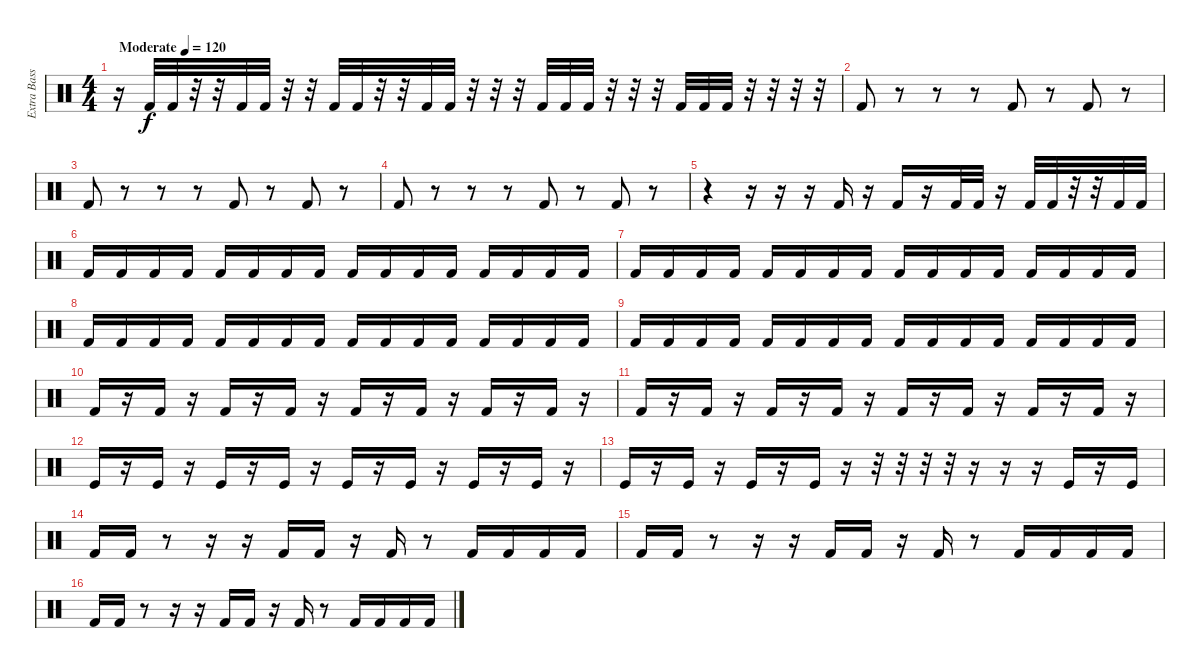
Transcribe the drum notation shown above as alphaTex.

\track ("Extra Bass Drum" "Extra Bass") {instrument percussion}
\staff {score}
\articulation defaults
\ts (4 4)
\tempo (120 "Moderate")
\clef neutral
\ks c
r.16{dy f} "Kick (hit) 2".32 "Kick (hit) 2".32 r.32 r.32 "Kick (hit) 2".32 "Kick (hit) 2".32 r.32 r.32 "Kick (hit) 2".32 "Kick (hit) 2".32 r.32 r.32 "Kick (hit) 2".32 "Kick (hit) 2".32 r.32 r.32 r.32 "Kick (hit) 2".32 "Kick (hit) 2".32 "Kick (hit) 2".32 r.32 r.32 r.32 "Kick (hit) 2".32 "Kick (hit) 2".32 "Kick (hit) 2".32 r.32 r.32 r.32 r.32 |
"Kick (hit) 2".8 r.8 r.8 r.8 "Kick (hit) 2".8 r.8 "Kick (hit) 2".8 r.8 |
"Kick (hit) 2".8 r.8 r.8 r.8 "Kick (hit) 2".8 r.8 "Kick (hit) 2".8 r.8 |
"Kick (hit) 2".8 r.8 r.8 r.8 "Kick (hit) 2".8 r.8 "Kick (hit) 2".8 r.8 |
r.4 r.16 r.16 r.16 "Kick (hit) 2".16 r.16 "Kick (hit) 2".16 r.16 "Kick (hit) 2".32 "Kick (hit) 2".32 r.16 "Kick (hit) 2".32 "Kick (hit) 2".32 r.32 r.32 "Kick (hit) 2".32 "Kick (hit) 2".32 |
"Kick (hit) 2".16 "Kick (hit) 2".16 "Kick (hit) 2".16 "Kick (hit) 2".16 "Kick (hit) 2".16 "Kick (hit) 2".16 "Kick (hit) 2".16 "Kick (hit) 2".16 "Kick (hit) 2".16 "Kick (hit) 2".16 "Kick (hit) 2".16 "Kick (hit) 2".16 "Kick (hit) 2".16 "Kick (hit) 2".16 "Kick (hit) 2".16 "Kick (hit) 2".16 |
"Kick (hit) 2".16 "Kick (hit) 2".16 "Kick (hit) 2".16 "Kick (hit) 2".16 "Kick (hit) 2".16 "Kick (hit) 2".16 "Kick (hit) 2".16 "Kick (hit) 2".16 "Kick (hit) 2".16 "Kick (hit) 2".16 "Kick (hit) 2".16 "Kick (hit) 2".16 "Kick (hit) 2".16 "Kick (hit) 2".16 "Kick (hit) 2".16 "Kick (hit) 2".16 |
"Kick (hit) 2".16 "Kick (hit) 2".16 "Kick (hit) 2".16 "Kick (hit) 2".16 "Kick (hit) 2".16 "Kick (hit) 2".16 "Kick (hit) 2".16 "Kick (hit) 2".16 "Kick (hit) 2".16 "Kick (hit) 2".16 "Kick (hit) 2".16 "Kick (hit) 2".16 "Kick (hit) 2".16 "Kick (hit) 2".16 "Kick (hit) 2".16 "Kick (hit) 2".16 |
"Kick (hit) 2".16 "Kick (hit) 2".16 "Kick (hit) 2".16 "Kick (hit) 2".16 "Kick (hit) 2".16 "Kick (hit) 2".16 "Kick (hit) 2".16 "Kick (hit) 2".16 "Kick (hit) 2".16 "Kick (hit) 2".16 "Kick (hit) 2".16 "Kick (hit) 2".16 "Kick (hit) 2".16 "Kick (hit) 2".16 "Kick (hit) 2".16 "Kick (hit) 2".16 |
"Kick (hit) 2".16 r.16 "Kick (hit) 2".16 r.16 "Kick (hit) 2".16 r.16 "Kick (hit) 2".16 r.16 "Kick (hit) 2".16 r.16 "Kick (hit) 2".16 r.16 "Kick (hit) 2".16 r.16 "Kick (hit) 2".16 r.16 |
"Kick (hit) 2".16 r.16 "Kick (hit) 2".16 r.16 "Kick (hit) 2".16 r.16 "Kick (hit) 2".16 r.16 "Kick (hit) 2".16 r.16 "Kick (hit) 2".16 r.16 "Kick (hit) 2".16 r.16 "Kick (hit) 2".16 r.16 |
"Kick (hit)".16 r.16 "Kick (hit)".16 r.16 "Kick (hit)".16 r.16 "Kick (hit)".16 r.16 "Kick (hit)".16 r.16 "Kick (hit)".16 r.16 "Kick (hit)".16 r.16 "Kick (hit)".16 r.16 |
"Kick (hit)".16 r.16 "Kick (hit)".16 r.16 "Kick (hit)".16 r.16 "Kick (hit)".16 r.16 r.32 r.32 r.32 r.32 r.16 r.16 r.16 "Kick (hit)".16 r.16 "Kick (hit)".16 |
"Kick (hit) 2".16 "Kick (hit) 2".16 r.8 r.16 r.16 "Kick (hit) 2".16 "Kick (hit) 2".16 r.16 "Kick (hit) 2".16 r.8 "Kick (hit) 2".16 "Kick (hit) 2".16 "Kick (hit) 2".16 "Kick (hit) 2".16 |
"Kick (hit) 2".16 "Kick (hit) 2".16 r.8 r.16 r.16 "Kick (hit) 2".16 "Kick (hit) 2".16 r.16 "Kick (hit) 2".16 r.8 "Kick (hit) 2".16 "Kick (hit) 2".16 "Kick (hit) 2".16 "Kick (hit) 2".16 |
"Kick (hit) 2".16 "Kick (hit) 2".16 r.8 r.16 r.16 "Kick (hit) 2".16 "Kick (hit) 2".16 r.16 "Kick (hit) 2".16 r.8 "Kick (hit) 2".16 "Kick (hit) 2".16 "Kick (hit) 2".16 "Kick (hit) 2".16
